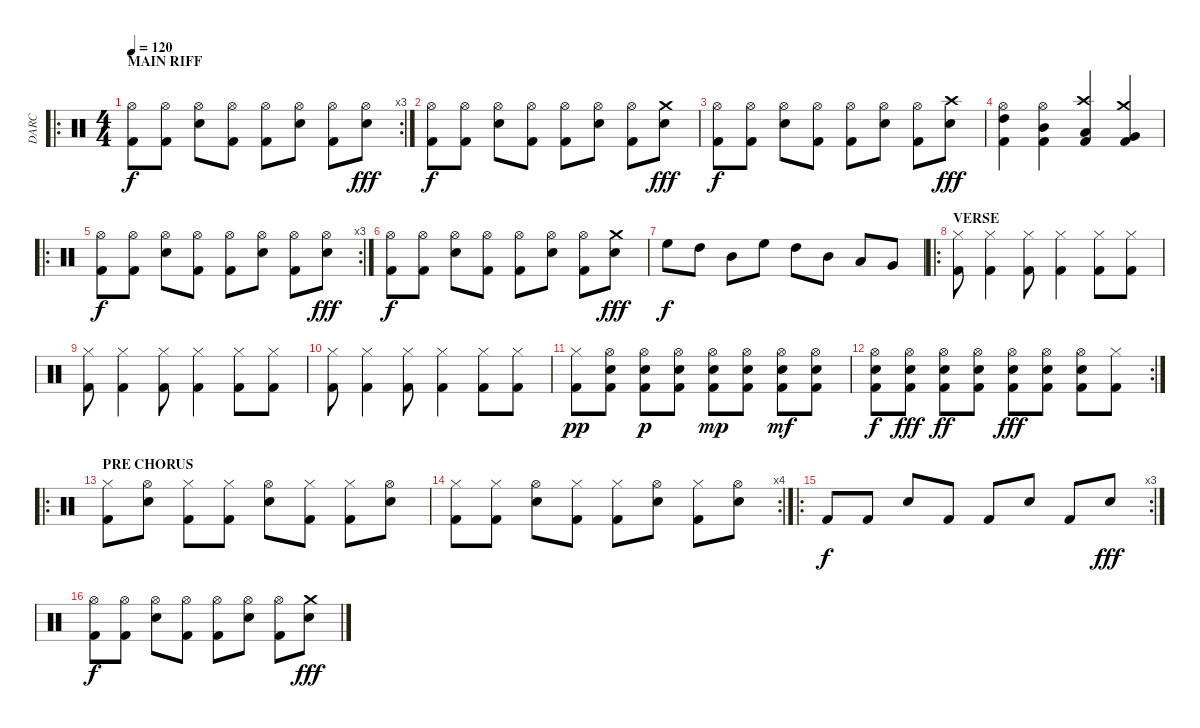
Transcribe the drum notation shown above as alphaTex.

\track ("DARC" "DARC") {instrument percussion}
\staff {score}
\articulation defaults
\ro
\rc 3
\ts (4 4)
\section ("" "MAIN RIFF")
\tempo 120
\clef neutral
\ks c
("Hi-Hat (open)" "Kick (hit) 2").8{dy f} ("Hi-Hat (open)" "Kick (hit) 2").8 ("Hi-Hat (open)" "Snare (hit) 2").8 ("Hi-Hat (open)" "Kick (hit) 2").8 ("Hi-Hat (open)" "Kick (hit) 2").8 ("Hi-Hat (open)" "Snare (hit) 2").8 ("Hi-Hat (open)" "Kick (hit) 2").8 ("Hi-Hat (open)" "Snare (hit) 2").8{dy fff} |
("Hi-Hat (open)" "Kick (hit) 2").8{dy f} ("Hi-Hat (open)" "Kick (hit) 2").8 ("Hi-Hat (open)" "Snare (hit) 2").8 ("Hi-Hat (open)" "Kick (hit) 2").8 ("Hi-Hat (open)" "Kick (hit) 2").8 ("Hi-Hat (open)" "Snare (hit) 2").8 ("Hi-Hat (open)" "Kick (hit) 2").8 ("Crash medium (hit)" "Snare (hit) 2").8{dy fff} |
("Hi-Hat (open)" "Kick (hit) 2").8{dy f} ("Hi-Hat (open)" "Kick (hit) 2").8 ("Hi-Hat (open)" "Snare (hit) 2").8 ("Hi-Hat (open)" "Kick (hit) 2").8 ("Hi-Hat (open)" "Kick (hit) 2").8 ("Hi-Hat (open)" "Snare (hit) 2").8 ("Hi-Hat (open)" "Kick (hit) 2").8 ("Crash high (hit)" "Snare (hit) 2").8{dy fff} |
("High Tom (hit)" "Kick (hit) 2" "Hi-Hat (open)").4 ("Mid Tom (hit)" "Kick (hit) 2" "Hi-Hat (open)").4 ("Low Tom (hit)" "Kick (hit) 2" "Crash high (hit)").4 ("Very Low Tom (hit)" "Kick (hit) 2" "Crash medium (hit)").4 |
\ro
\rc 3
("Hi-Hat (open)" "Kick (hit) 2").8{dy f} ("Hi-Hat (open)" "Kick (hit) 2").8 ("Hi-Hat (open)" "Snare (hit) 2").8 ("Hi-Hat (open)" "Kick (hit) 2").8 ("Hi-Hat (open)" "Kick (hit) 2").8 ("Hi-Hat (open)" "Snare (hit) 2").8 ("Hi-Hat (open)" "Kick (hit) 2").8 ("Hi-Hat (open)" "Snare (hit) 2").8{dy fff} |
("Hi-Hat (open)" "Kick (hit) 2").8{dy f} ("Hi-Hat (open)" "Kick (hit) 2").8 ("Hi-Hat (open)" "Snare (hit) 2").8 ("Hi-Hat (open)" "Kick (hit) 2").8 ("Hi-Hat (open)" "Kick (hit) 2").8 ("Hi-Hat (open)" "Snare (hit) 2").8 ("Hi-Hat (open)" "Kick (hit) 2").8 ("Crash medium (hit)" "Snare (hit) 2").8{dy fff} |
"High Floor Tom (hit)".8{dy f} "High Tom (hit)".8 "Mid Tom (hit)".8 "High Floor Tom (hit)".8 "High Tom (hit)".8 "Mid Tom (hit)".8 "Low Tom (hit)".8 "Very Low Tom (hit)".8 |
\ro
\section ("" "VERSE")
("Hi-Hat (closed)" "Kick (hit) 2").8 ("Hi-Hat (closed)" "Kick (hit) 2").4 ("Hi-Hat (closed)" "Kick (hit) 2").8 ("Hi-Hat (closed)" "Kick (hit) 2").4 ("Hi-Hat (closed)" "Kick (hit) 2").8 ("Hi-Hat (closed)" "Kick (hit) 2").8 |
("Hi-Hat (closed)" "Kick (hit) 2").8 ("Hi-Hat (closed)" "Kick (hit) 2").4 ("Hi-Hat (closed)" "Kick (hit) 2").8 ("Hi-Hat (closed)" "Kick (hit) 2").4 ("Hi-Hat (closed)" "Kick (hit) 2").8 ("Hi-Hat (closed)" "Kick (hit) 2").8 |
("Hi-Hat (closed)" "Kick (hit) 2").8 ("Hi-Hat (closed)" "Kick (hit) 2").4 ("Hi-Hat (closed)" "Kick (hit) 2").8 ("Hi-Hat (closed)" "Kick (hit) 2").4 ("Hi-Hat (closed)" "Kick (hit) 2").8 ("Hi-Hat (closed)" "Kick (hit) 2").8 |
("Hi-Hat (closed)" "Kick (hit) 2").8{dy pp} ("Kick (hit) 2" "Hi-Hat (open)" "Electric Snare (hit)").8 ("Kick (hit) 2" "Hi-Hat (open)" "Electric Snare (hit)").8{dy p} ("Kick (hit) 2" "Hi-Hat (open)" "Electric Snare (hit)").8 ("Kick (hit) 2" "Hi-Hat (open)" "Electric Snare (hit)").8{dy mp} ("Kick (hit) 2" "Hi-Hat (open)" "Electric Snare (hit)").8 ("Kick (hit) 2" "Hi-Hat (open)" "Electric Snare (hit)").8{dy mf} ("Kick (hit) 2" "Hi-Hat (open)" "Electric Snare (hit)").8 |
\rc 2
("Kick (hit) 2" "Hi-Hat (open)" "Electric Snare (hit)").8{dy f} ("Kick (hit) 2" "Hi-Hat (open)" "Electric Snare (hit)").8{dy fff} ("Kick (hit) 2" "Hi-Hat (open)" "Electric Snare (hit)").8{dy ff} ("Kick (hit) 2" "Hi-Hat (open)" "Electric Snare (hit)").8 ("Kick (hit) 2" "Hi-Hat (open)" "Electric Snare (hit)").8{dy fff} ("Kick (hit) 2" "Hi-Hat (open)" "Electric Snare (hit)").8 ("Kick (hit) 2" "Hi-Hat (open)" "Electric Snare (hit)").8 ("Hi-Hat (closed)" "Kick (hit) 2").8 |
\ro
\section ("" "PRE CHORUS")
("Hi-Hat (closed)" "Kick (hit) 2").8 ("Hi-Hat (open)" "Electric Snare (hit)").8 ("Hi-Hat (closed)" "Kick (hit) 2").8 ("Hi-Hat (closed)" "Kick (hit) 2").8 ("Hi-Hat (open)" "Electric Snare (hit)").8 ("Hi-Hat (closed)" "Kick (hit) 2").8 ("Hi-Hat (closed)" "Kick (hit) 2").8 ("Hi-Hat (open)" "Electric Snare (hit)").8 |
\rc 4
("Hi-Hat (closed)" "Kick (hit) 2").8 ("Hi-Hat (closed)" "Kick (hit) 2").8 ("Hi-Hat (open)" "Electric Snare (hit)").8 ("Hi-Hat (closed)" "Kick (hit) 2").8 ("Hi-Hat (closed)" "Kick (hit) 2").8 ("Hi-Hat (open)" "Electric Snare (hit)").8 ("Hi-Hat (closed)" "Kick (hit) 2").8 ("Hi-Hat (open)" "Electric Snare (hit)").8 |
\ro
\rc 3 "Kick (hit) 2".8{dy f} "Kick (hit) 2".8 "Snare (hit) 2".8 "Kick (hit) 2".8 "Kick (hit) 2".8 "Snare (hit) 2".8 "Kick (hit) 2".8 "Snare (hit) 2".8{dy fff}
|
("Hi-Hat (open)" "Kick (hit) 2").8{dy f} ("Hi-Hat (open)" "Kick (hit) 2").8 ("Hi-Hat (open)" "Snare (hit) 2").8 ("Hi-Hat (open)" "Kick (hit) 2").8 ("Hi-Hat (open)" "Kick (hit) 2").8 ("Hi-Hat (open)" "Snare (hit) 2").8 ("Hi-Hat (open)" "Kick (hit) 2").8 ("Crash medium (hit)" "Snare (hit) 2").8{dy fff}
